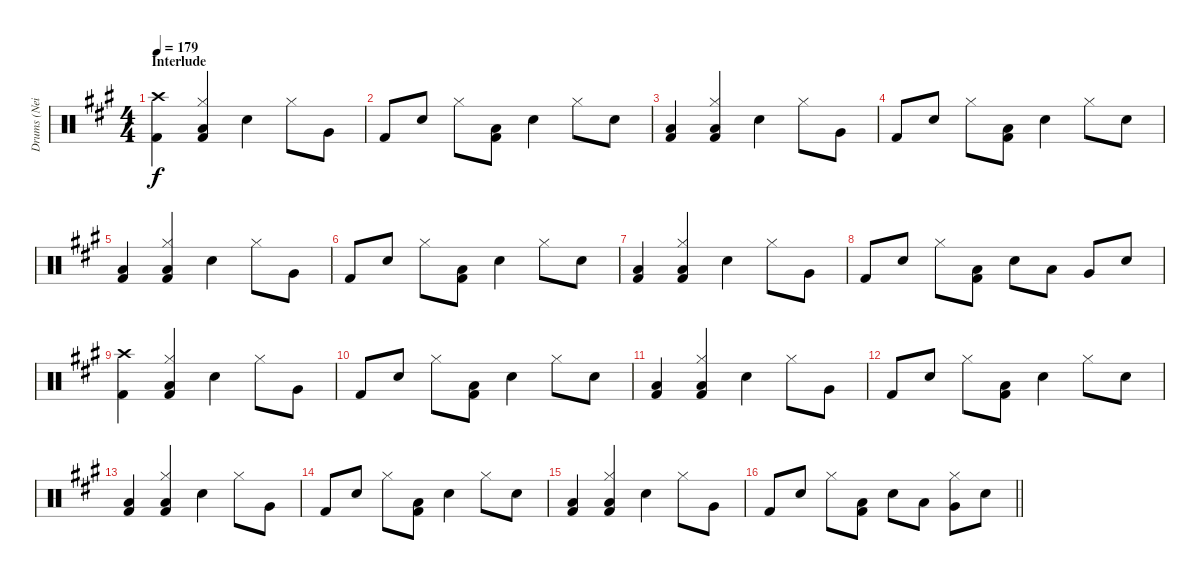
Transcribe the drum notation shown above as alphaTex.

\track ("Drums (Neil Sanderson)" "Drums (Nei") {instrument percussion}
\staff {score}
\articulation defaults
\ts (4 4)
\section ("" "Interlude")
\tempo 179
\clef neutral
\ks f#minor
("Crash high (hit)" "Kick (hit) 2").4{dy f} ("Hi-Hat (closed)" "Low Tom (hit)" "Kick (hit) 2").4 "Electric Snare (hit)".4 "Hi-Hat (closed)".8 "Very Low Tom (hit)".8 |
"Kick (hit) 2".8 "Electric Snare (hit)".8 "Hi-Hat (closed)".8 ("Low Floor Tom (hit)" "Kick (hit) 2").8 "Electric Snare (hit)".4 "Hi-Hat (closed)".8 "Electric Snare (hit)".8 |
("Low Tom (hit)" "Kick (hit) 2").4 ("Hi-Hat (closed)" "Low Tom (hit)" "Kick (hit) 2").4 "Electric Snare (hit)".4 "Hi-Hat (closed)".8 "Very Low Tom (hit)".8 |
"Kick (hit) 2".8 "Electric Snare (hit)".8 "Hi-Hat (closed)".8 ("Low Floor Tom (hit)" "Kick (hit) 2").8 "Electric Snare (hit)".4 "Hi-Hat (closed)".8 "Electric Snare (hit)".8 |
("Low Tom (hit)" "Kick (hit) 2").4 ("Hi-Hat (closed)" "Low Tom (hit)" "Kick (hit) 2").4 "Electric Snare (hit)".4 "Hi-Hat (closed)".8 "Very Low Tom (hit)".8 |
"Kick (hit) 2".8 "Electric Snare (hit)".8 "Hi-Hat (closed)".8 ("Low Floor Tom (hit)" "Kick (hit) 2").8 "Electric Snare (hit)".4 "Hi-Hat (closed)".8 "Electric Snare (hit)".8 |
("Low Tom (hit)" "Kick (hit) 2").4 ("Hi-Hat (closed)" "Low Tom (hit)" "Kick (hit) 2").4 "Electric Snare (hit)".4 "Hi-Hat (closed)".8 "Very Low Tom (hit)".8 |
"Kick (hit) 2".8 "Electric Snare (hit)".8 "Hi-Hat (closed)".8 ("Low Floor Tom (hit)" "Kick (hit) 2").8 "Electric Snare (hit)".8 "Low Tom (hit)".8 "Very Low Tom (hit)".8 "Electric Snare (hit)".8 |
("Crash high (hit)" "Kick (hit) 2").4 ("Hi-Hat (closed)" "Low Tom (hit)" "Kick (hit) 2").4 "Electric Snare (hit)".4 "Hi-Hat (closed)".8 "Very Low Tom (hit)".8 |
"Kick (hit) 2".8 "Electric Snare (hit)".8 "Hi-Hat (closed)".8 ("Low Floor Tom (hit)" "Kick (hit) 2").8 "Electric Snare (hit)".4 "Hi-Hat (closed)".8 "Electric Snare (hit)".8 |
("Low Tom (hit)" "Kick (hit) 2").4 ("Hi-Hat (closed)" "Low Tom (hit)" "Kick (hit) 2").4 "Electric Snare (hit)".4 "Hi-Hat (closed)".8 "Very Low Tom (hit)".8 |
"Kick (hit) 2".8 "Electric Snare (hit)".8 "Hi-Hat (closed)".8 ("Low Floor Tom (hit)" "Kick (hit) 2").8 "Electric Snare (hit)".4 "Hi-Hat (closed)".8 "Electric Snare (hit)".8 |
("Low Tom (hit)" "Kick (hit) 2").4 ("Hi-Hat (closed)" "Low Tom (hit)" "Kick (hit) 2").4 "Electric Snare (hit)".4 "Hi-Hat (closed)".8 "Very Low Tom (hit)".8 |
"Kick (hit) 2".8 "Electric Snare (hit)".8 "Hi-Hat (closed)".8 ("Low Floor Tom (hit)" "Kick (hit) 2").8 "Electric Snare (hit)".4 "Hi-Hat (closed)".8 "Electric Snare (hit)".8 |
("Low Tom (hit)" "Kick (hit) 2").4 ("Hi-Hat (closed)" "Low Tom (hit)" "Kick (hit) 2").4 "Electric Snare (hit)".4 "Hi-Hat (closed)".8 "Very Low Tom (hit)".8 |
\barLineRight lightlight "Kick (hit) 2".8 "Electric Snare (hit)".8 "Hi-Hat (closed)".8
("Low Floor Tom (hit)" "Kick (hit) 2").8 "Electric Snare (hit)".8 "Low Tom (hit)".8 ("Hi-Hat (closed)" "Very Low Tom (hit)").8 "Electric Snare (hit)".8
